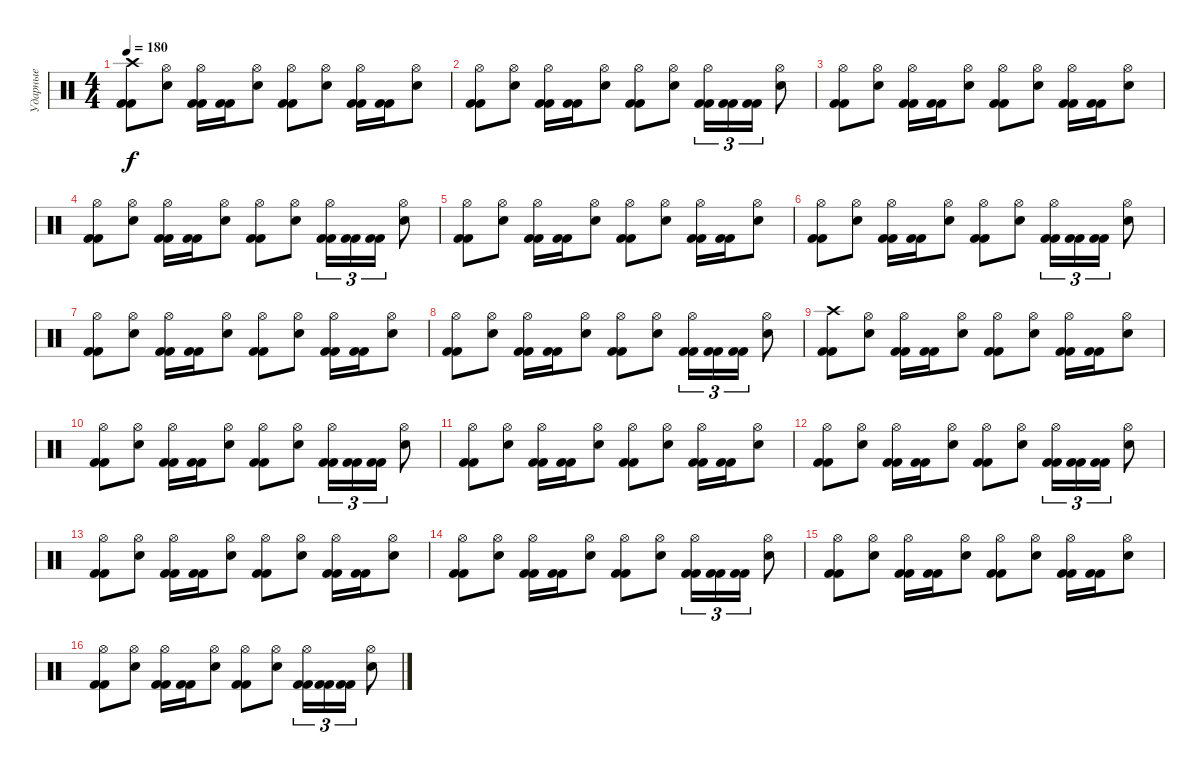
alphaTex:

\track ("Ударные" "Ударные") {instrument percussion}
\staff {score}
\articulation defaults
\ts (4 4)
\tempo 180
\clef neutral
\ks c
("Crash high (hit)" "Kick (hit) 2" "Kick (hit) 2").8{dy f} ("Hi-Hat (open)" "Electric Snare (hit)").8 ("Hi-Hat (open)" "Kick (hit) 2" "Kick (hit) 2").16 ("Kick (hit) 2" "Kick (hit) 2").16 ("Hi-Hat (open)" "Electric Snare (hit)").8 ("Hi-Hat (open)" "Kick (hit) 2" "Kick (hit) 2").8 ("Hi-Hat (open)" "Electric Snare (hit)").8 ("Hi-Hat (open)" "Kick (hit) 2" "Kick (hit) 2").16 ("Kick (hit) 2" "Kick (hit) 2").16 ("Hi-Hat (open)" "Electric Snare (hit)").8 |
("Hi-Hat (open)" "Kick (hit) 2" "Kick (hit) 2").8 ("Hi-Hat (open)" "Electric Snare (hit)").8 ("Hi-Hat (open)" "Kick (hit) 2" "Kick (hit) 2").16 ("Kick (hit) 2" "Kick (hit) 2").16 ("Hi-Hat (open)" "Electric Snare (hit)").8 ("Hi-Hat (open)" "Kick (hit) 2" "Kick (hit) 2").8 ("Hi-Hat (open)" "Electric Snare (hit)").8 ("Hi-Hat (open)" "Kick (hit) 2" "Kick (hit) 2").16{tu (3 2)} ("Kick (hit) 2" "Kick (hit) 2").16{tu (3 2)} ("Kick (hit) 2" "Kick (hit) 2").16{tu (3 2)} ("Hi-Hat (open)" "Electric Snare (hit)").8 |
("Hi-Hat (open)" "Kick (hit) 2" "Kick (hit) 2").8 ("Hi-Hat (open)" "Electric Snare (hit)").8 ("Hi-Hat (open)" "Kick (hit) 2" "Kick (hit) 2").16 ("Kick (hit) 2" "Kick (hit) 2").16 ("Hi-Hat (open)" "Electric Snare (hit)").8 ("Hi-Hat (open)" "Kick (hit) 2" "Kick (hit) 2").8 ("Hi-Hat (open)" "Electric Snare (hit)").8 ("Hi-Hat (open)" "Kick (hit) 2" "Kick (hit) 2").16 ("Kick (hit) 2" "Kick (hit) 2").16 ("Hi-Hat (open)" "Electric Snare (hit)").8 |
("Hi-Hat (open)" "Kick (hit) 2" "Kick (hit) 2").8 ("Hi-Hat (open)" "Electric Snare (hit)").8 ("Hi-Hat (open)" "Kick (hit) 2" "Kick (hit) 2").16 ("Kick (hit) 2" "Kick (hit) 2").16 ("Hi-Hat (open)" "Electric Snare (hit)").8 ("Hi-Hat (open)" "Kick (hit) 2" "Kick (hit) 2").8 ("Hi-Hat (open)" "Electric Snare (hit)").8 ("Hi-Hat (open)" "Kick (hit) 2" "Kick (hit) 2").16{tu (3 2)} ("Kick (hit) 2" "Kick (hit) 2").16{tu (3 2)} ("Kick (hit) 2" "Kick (hit) 2").16{tu (3 2)} ("Hi-Hat (open)" "Electric Snare (hit)").8 |
("Hi-Hat (open)" "Kick (hit) 2" "Kick (hit) 2").8 ("Hi-Hat (open)" "Electric Snare (hit)").8 ("Hi-Hat (open)" "Kick (hit) 2" "Kick (hit) 2").16 ("Kick (hit) 2" "Kick (hit) 2").16 ("Hi-Hat (open)" "Electric Snare (hit)").8 ("Hi-Hat (open)" "Kick (hit) 2" "Kick (hit) 2").8 ("Hi-Hat (open)" "Electric Snare (hit)").8 ("Hi-Hat (open)" "Kick (hit) 2" "Kick (hit) 2").16 ("Kick (hit) 2" "Kick (hit) 2").16 ("Hi-Hat (open)" "Electric Snare (hit)").8 |
("Hi-Hat (open)" "Kick (hit) 2" "Kick (hit) 2").8 ("Hi-Hat (open)" "Electric Snare (hit)").8 ("Hi-Hat (open)" "Kick (hit) 2" "Kick (hit) 2").16 ("Kick (hit) 2" "Kick (hit) 2").16 ("Hi-Hat (open)" "Electric Snare (hit)").8 ("Hi-Hat (open)" "Kick (hit) 2" "Kick (hit) 2").8 ("Hi-Hat (open)" "Electric Snare (hit)").8 ("Hi-Hat (open)" "Kick (hit) 2" "Kick (hit) 2").16{tu (3 2)} ("Kick (hit) 2" "Kick (hit) 2").16{tu (3 2)} ("Kick (hit) 2" "Kick (hit) 2").16{tu (3 2)} ("Hi-Hat (open)" "Electric Snare (hit)").8 |
("Hi-Hat (open)" "Kick (hit) 2" "Kick (hit) 2").8 ("Hi-Hat (open)" "Electric Snare (hit)").8 ("Hi-Hat (open)" "Kick (hit) 2" "Kick (hit) 2").16 ("Kick (hit) 2" "Kick (hit) 2").16 ("Hi-Hat (open)" "Electric Snare (hit)").8 ("Hi-Hat (open)" "Kick (hit) 2" "Kick (hit) 2").8 ("Hi-Hat (open)" "Electric Snare (hit)").8 ("Hi-Hat (open)" "Kick (hit) 2" "Kick (hit) 2").16 ("Kick (hit) 2" "Kick (hit) 2").16 ("Hi-Hat (open)" "Electric Snare (hit)").8 |
("Hi-Hat (open)" "Kick (hit) 2" "Kick (hit) 2").8 ("Hi-Hat (open)" "Electric Snare (hit)").8 ("Hi-Hat (open)" "Kick (hit) 2" "Kick (hit) 2").16 ("Kick (hit) 2" "Kick (hit) 2").16 ("Hi-Hat (open)" "Electric Snare (hit)").8 ("Hi-Hat (open)" "Kick (hit) 2" "Kick (hit) 2").8 ("Hi-Hat (open)" "Electric Snare (hit)").8 ("Hi-Hat (open)" "Kick (hit) 2" "Kick (hit) 2").16{tu (3 2)} ("Kick (hit) 2" "Kick (hit) 2").16{tu (3 2)} ("Kick (hit) 2" "Kick (hit) 2").16{tu (3 2)} ("Hi-Hat (open)" "Electric Snare (hit)").8 |
("Crash high (hit)" "Kick (hit) 2" "Kick (hit) 2").8 ("Hi-Hat (open)" "Electric Snare (hit)").8 ("Hi-Hat (open)" "Kick (hit) 2" "Kick (hit) 2").16 ("Kick (hit) 2" "Kick (hit) 2").16 ("Hi-Hat (open)" "Electric Snare (hit)").8 ("Hi-Hat (open)" "Kick (hit) 2" "Kick (hit) 2").8 ("Hi-Hat (open)" "Electric Snare (hit)").8 ("Hi-Hat (open)" "Kick (hit) 2" "Kick (hit) 2").16 ("Kick (hit) 2" "Kick (hit) 2").16 ("Hi-Hat (open)" "Electric Snare (hit)").8 |
("Hi-Hat (open)" "Kick (hit) 2" "Kick (hit) 2").8 ("Hi-Hat (open)" "Electric Snare (hit)").8 ("Hi-Hat (open)" "Kick (hit) 2" "Kick (hit) 2").16 ("Kick (hit) 2" "Kick (hit) 2").16 ("Hi-Hat (open)" "Electric Snare (hit)").8 ("Hi-Hat (open)" "Kick (hit) 2" "Kick (hit) 2").8 ("Hi-Hat (open)" "Electric Snare (hit)").8 ("Hi-Hat (open)" "Kick (hit) 2" "Kick (hit) 2").16{tu (3 2)} ("Kick (hit) 2" "Kick (hit) 2").16{tu (3 2)} ("Kick (hit) 2" "Kick (hit) 2").16{tu (3 2)} ("Hi-Hat (open)" "Electric Snare (hit)").8 |
("Hi-Hat (open)" "Kick (hit) 2" "Kick (hit) 2").8 ("Hi-Hat (open)" "Electric Snare (hit)").8 ("Hi-Hat (open)" "Kick (hit) 2" "Kick (hit) 2").16 ("Kick (hit) 2" "Kick (hit) 2").16 ("Hi-Hat (open)" "Electric Snare (hit)").8 ("Hi-Hat (open)" "Kick (hit) 2" "Kick (hit) 2").8 ("Hi-Hat (open)" "Electric Snare (hit)").8 ("Hi-Hat (open)" "Kick (hit) 2" "Kick (hit) 2").16 ("Kick (hit) 2" "Kick (hit) 2").16 ("Hi-Hat (open)" "Electric Snare (hit)").8 |
("Hi-Hat (open)" "Kick (hit) 2" "Kick (hit) 2").8 ("Hi-Hat (open)" "Electric Snare (hit)").8 ("Hi-Hat (open)" "Kick (hit) 2" "Kick (hit) 2").16 ("Kick (hit) 2" "Kick (hit) 2").16 ("Hi-Hat (open)" "Electric Snare (hit)").8 ("Hi-Hat (open)" "Kick (hit) 2" "Kick (hit) 2").8 ("Hi-Hat (open)" "Electric Snare (hit)").8 ("Hi-Hat (open)" "Kick (hit) 2" "Kick (hit) 2").16{tu (3 2)} ("Kick (hit) 2" "Kick (hit) 2").16{tu (3 2)} ("Kick (hit) 2" "Kick (hit) 2").16{tu (3 2)} ("Hi-Hat (open)" "Electric Snare (hit)").8 |
("Hi-Hat (open)" "Kick (hit) 2" "Kick (hit) 2").8 ("Hi-Hat (open)" "Electric Snare (hit)").8 ("Hi-Hat (open)" "Kick (hit) 2" "Kick (hit) 2").16 ("Kick (hit) 2" "Kick (hit) 2").16 ("Hi-Hat (open)" "Electric Snare (hit)").8 ("Hi-Hat (open)" "Kick (hit) 2" "Kick (hit) 2").8 ("Hi-Hat (open)" "Electric Snare (hit)").8 ("Hi-Hat (open)" "Kick (hit) 2" "Kick (hit) 2").16 ("Kick (hit) 2" "Kick (hit) 2").16 ("Hi-Hat (open)" "Electric Snare (hit)").8 |
("Hi-Hat (open)" "Kick (hit) 2" "Kick (hit) 2").8 ("Hi-Hat (open)" "Electric Snare (hit)").8 ("Hi-Hat (open)" "Kick (hit) 2" "Kick (hit) 2").16 ("Kick (hit) 2" "Kick (hit) 2").16 ("Hi-Hat (open)" "Electric Snare (hit)").8 ("Hi-Hat (open)" "Kick (hit) 2" "Kick (hit) 2").8 ("Hi-Hat (open)" "Electric Snare (hit)").8 ("Hi-Hat (open)" "Kick (hit) 2" "Kick (hit) 2").16{tu (3 2)} ("Kick (hit) 2" "Kick (hit) 2").16{tu (3 2)} ("Kick (hit) 2" "Kick (hit) 2").16{tu (3 2)} ("Hi-Hat (open)" "Electric Snare (hit)").8 |
("Hi-Hat (open)" "Kick (hit) 2" "Kick (hit) 2").8 ("Hi-Hat (open)" "Electric Snare (hit)").8 ("Hi-Hat (open)" "Kick (hit) 2" "Kick (hit) 2").16 ("Kick (hit) 2" "Kick (hit) 2").16 ("Hi-Hat (open)" "Electric Snare (hit)").8 ("Hi-Hat (open)" "Kick (hit) 2" "Kick (hit) 2").8 ("Hi-Hat (open)" "Electric Snare (hit)").8 ("Hi-Hat (open)" "Kick (hit) 2" "Kick (hit) 2").16 ("Kick (hit) 2" "Kick (hit) 2").16 ("Hi-Hat (open)" "Electric Snare (hit)").8 |
("Hi-Hat (open)" "Kick (hit) 2" "Kick (hit) 2").8 ("Hi-Hat (open)" "Electric Snare (hit)").8 ("Hi-Hat (open)" "Kick (hit) 2" "Kick (hit) 2").16 ("Kick (hit) 2" "Kick (hit) 2").16 ("Hi-Hat (open)" "Electric Snare (hit)").8 ("Hi-Hat (open)" "Kick (hit) 2" "Kick (hit) 2").8 ("Hi-Hat (open)" "Electric Snare (hit)").8 ("Hi-Hat (open)" "Kick (hit) 2" "Kick (hit) 2").16{tu (3 2)} ("Kick (hit) 2" "Kick (hit) 2").16{tu (3 2)} ("Kick (hit) 2" "Kick (hit) 2").16{tu (3 2)} ("Hi-Hat (open)" "Electric Snare (hit)").8
